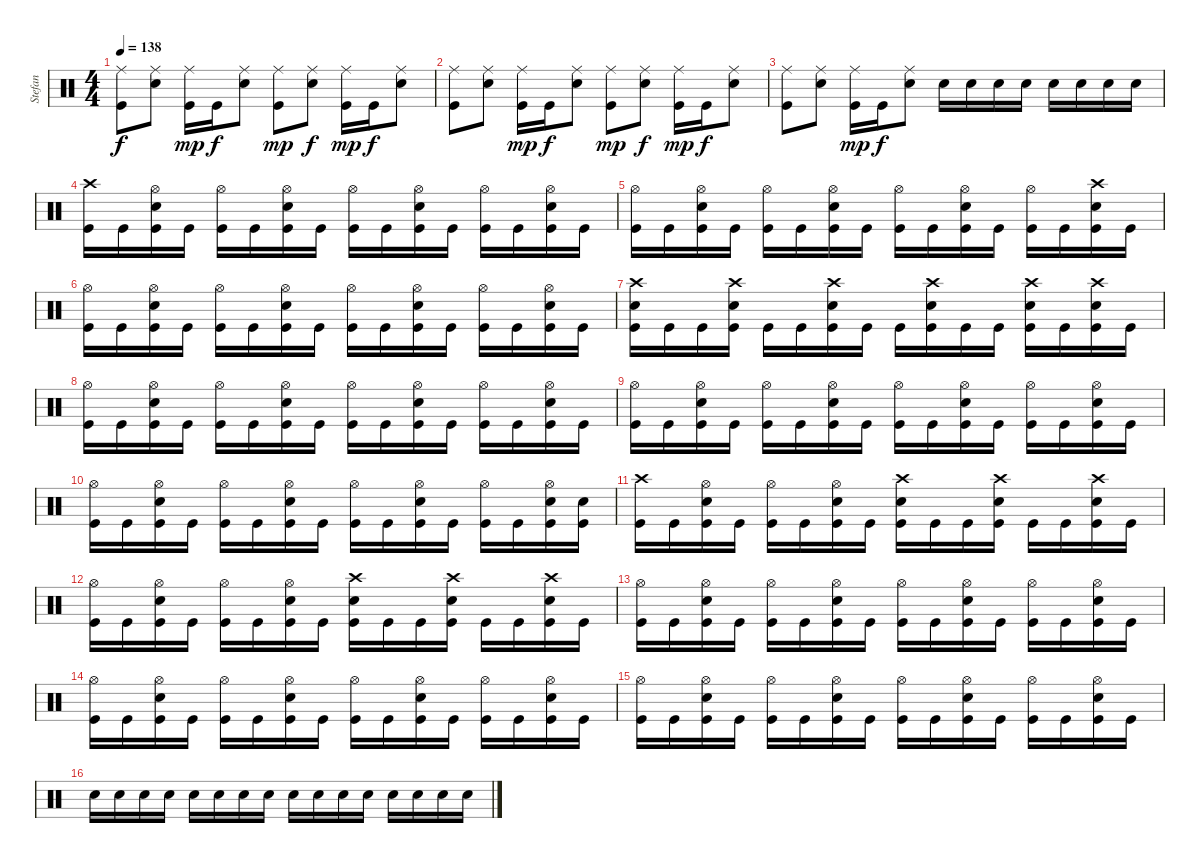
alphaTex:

\track ("Stefan" "Stefan") {instrument percussion}
\staff {score}
\articulation defaults
\ts (4 4)
\tempo 138
\clef neutral
\ks c
("Ride (middle)" "Kick (hit)").8{dy f} ("Ride (middle)" "Snare (hit) 2").8 ("Ride (middle)" "Kick (hit)").16{dy mp} "Kick (hit)".16{dy f} ("Ride (middle)" "Snare (hit) 2").8 ("Ride (middle)" "Kick (hit)").8{dy mp} ("Ride (middle)" "Snare (hit) 2").8{dy f} ("Ride (middle)" "Kick (hit)").16{dy mp} "Kick (hit)".16{dy f} ("Ride (middle)" "Snare (hit) 2").8 |
("Ride (middle)" "Kick (hit)").8 ("Ride (middle)" "Snare (hit) 2").8 ("Ride (middle)" "Kick (hit)").16{dy mp} "Kick (hit)".16{dy f} ("Ride (middle)" "Snare (hit) 2").8 ("Ride (middle)" "Kick (hit)").8{dy mp} ("Ride (middle)" "Snare (hit) 2").8{dy f} ("Ride (middle)" "Kick (hit)").16{dy mp} "Kick (hit)".16{dy f} ("Ride (middle)" "Snare (hit) 2").8 |
("Ride (middle)" "Kick (hit)").8 ("Ride (middle)" "Snare (hit) 2").8 ("Ride (middle)" "Kick (hit)").16{dy mp} "Kick (hit)".16{dy f} ("Ride (middle)" "Snare (hit) 2").8 "Snare (hit) 2".16 "Snare (hit) 2".16 "Snare (hit) 2".16 "Snare (hit) 2".16 "Snare (hit) 2".16 "Snare (hit) 2".16 "Snare (hit) 2".16 "Snare (hit) 2".16 |
("Crash high (hit)" "Kick (hit)").16 "Kick (hit)".16 ("Hi-Hat (open)" "Snare (hit) 2" "Kick (hit)").16 "Kick (hit)".16 ("Hi-Hat (open)" "Kick (hit)").16 "Kick (hit)".16 ("Hi-Hat (open)" "Snare (hit) 2" "Kick (hit)").16 "Kick (hit)".16 ("Hi-Hat (open)" "Kick (hit)").16 "Kick (hit)".16 ("Hi-Hat (open)" "Snare (hit) 2" "Kick (hit)").16 "Kick (hit)".16 ("Hi-Hat (open)" "Kick (hit)").16 "Kick (hit)".16 ("Hi-Hat (open)" "Snare (hit) 2" "Kick (hit)").16 "Kick (hit)".16 |
("Hi-Hat (open)" "Kick (hit)").16 "Kick (hit)".16 ("Hi-Hat (open)" "Snare (hit) 2" "Kick (hit)").16 "Kick (hit)".16 ("Hi-Hat (open)" "Kick (hit)").16 "Kick (hit)".16 ("Hi-Hat (open)" "Snare (hit) 2" "Kick (hit)").16 "Kick (hit)".16 ("Hi-Hat (open)" "Kick (hit)").16 "Kick (hit)".16 ("Hi-Hat (open)" "Snare (hit) 2" "Kick (hit)").16 "Kick (hit)".16 ("Hi-Hat (open)" "Kick (hit)").16 "Kick (hit)".16 ("Crash high (hit)" "Snare (hit) 2" "Kick (hit)").16 "Kick (hit)".16 |
("Hi-Hat (open)" "Kick (hit)").16 "Kick (hit)".16 ("Hi-Hat (open)" "Snare (hit) 2" "Kick (hit)").16 "Kick (hit)".16 ("Hi-Hat (open)" "Kick (hit)").16 "Kick (hit)".16 ("Hi-Hat (open)" "Snare (hit) 2" "Kick (hit)").16 "Kick (hit)".16 ("Hi-Hat (open)" "Kick (hit)").16 "Kick (hit)".16 ("Hi-Hat (open)" "Snare (hit) 2" "Kick (hit)").16 "Kick (hit)".16 ("Hi-Hat (open)" "Kick (hit)").16 "Kick (hit)".16 ("Hi-Hat (open)" "Snare (hit) 2" "Kick (hit)").16 "Kick (hit)".16 |
("Crash high (hit)" "Snare (hit) 2" "Kick (hit)").16 "Kick (hit)".16 "Kick (hit)".16 ("Crash high (hit)" "Snare (hit) 2" "Kick (hit)").16 "Kick (hit)".16 "Kick (hit)".16 ("Crash high (hit)" "Snare (hit) 2" "Kick (hit)").16 "Kick (hit)".16 "Kick (hit)".16 ("Crash high (hit)" "Snare (hit) 2" "Kick (hit)").16 "Kick (hit)".16 "Kick (hit)".16 ("Crash high (hit)" "Snare (hit) 2" "Kick (hit)").16 "Kick (hit)".16 ("Crash high (hit)" "Snare (hit) 2" "Kick (hit)").16 "Kick (hit)".16 |
("Hi-Hat (open)" "Kick (hit)").16 "Kick (hit)".16 ("Hi-Hat (open)" "Snare (hit) 2" "Kick (hit)").16 "Kick (hit)".16 ("Hi-Hat (open)" "Kick (hit)").16 "Kick (hit)".16 ("Hi-Hat (open)" "Snare (hit) 2" "Kick (hit)").16 "Kick (hit)".16 ("Hi-Hat (open)" "Kick (hit)").16 "Kick (hit)".16 ("Hi-Hat (open)" "Snare (hit) 2" "Kick (hit)").16 "Kick (hit)".16 ("Hi-Hat (open)" "Kick (hit)").16 "Kick (hit)".16 ("Hi-Hat (open)" "Snare (hit) 2" "Kick (hit)").16 "Kick (hit)".16 |
("Hi-Hat (open)" "Kick (hit)").16 "Kick (hit)".16 ("Hi-Hat (open)" "Snare (hit) 2" "Kick (hit)").16 "Kick (hit)".16 ("Hi-Hat (open)" "Kick (hit)").16 "Kick (hit)".16 ("Hi-Hat (open)" "Snare (hit) 2" "Kick (hit)").16 "Kick (hit)".16 ("Hi-Hat (open)" "Kick (hit)").16 "Kick (hit)".16 ("Hi-Hat (open)" "Snare (hit) 2" "Kick (hit)").16 "Kick (hit)".16 ("Hi-Hat (open)" "Kick (hit)").16 "Kick (hit)".16 ("Hi-Hat (open)" "Snare (hit) 2" "Kick (hit)").16 "Kick (hit)".16 |
("Hi-Hat (open)" "Kick (hit)").16 "Kick (hit)".16 ("Hi-Hat (open)" "Snare (hit) 2" "Kick (hit)").16 "Kick (hit)".16 ("Hi-Hat (open)" "Kick (hit)").16 "Kick (hit)".16 ("Hi-Hat (open)" "Snare (hit) 2" "Kick (hit)").16 "Kick (hit)".16 ("Hi-Hat (open)" "Kick (hit)").16 "Kick (hit)".16 ("Hi-Hat (open)" "Snare (hit) 2" "Kick (hit)").16 "Kick (hit)".16 ("Hi-Hat (open)" "Kick (hit)").16 "Kick (hit)".16 ("Hi-Hat (open)" "Snare (hit) 2" "Kick (hit)").16 ("Snare (hit) 2" "Kick (hit)").16 |
("Crash high (hit)" "Kick (hit)").16 "Kick (hit)".16 ("Hi-Hat (open)" "Snare (hit) 2" "Kick (hit)").16 "Kick (hit)".16 ("Hi-Hat (open)" "Kick (hit)").16 "Kick (hit)".16 ("Hi-Hat (open)" "Snare (hit) 2" "Kick (hit)").16 "Kick (hit)".16 ("Crash high (hit)" "Snare (hit) 2" "Kick (hit)").16 "Kick (hit)".16 "Kick (hit)".16 ("Crash high (hit)" "Snare (hit) 2" "Kick (hit)").16 "Kick (hit)".16 "Kick (hit)".16 ("Crash high (hit)" "Snare (hit) 2" "Kick (hit)").16 "Kick (hit)".16 |
("Hi-Hat (open)" "Kick (hit)").16 "Kick (hit)".16 ("Hi-Hat (open)" "Snare (hit) 2" "Kick (hit)").16 "Kick (hit)".16 ("Hi-Hat (open)" "Kick (hit)").16 "Kick (hit)".16 ("Hi-Hat (open)" "Snare (hit) 2" "Kick (hit)").16 "Kick (hit)".16 ("Crash high (hit)" "Snare (hit) 2" "Kick (hit)").16 "Kick (hit)".16 "Kick (hit)".16 ("Crash high (hit)" "Snare (hit) 2" "Kick (hit)").16 "Kick (hit)".16 "Kick (hit)".16 ("Crash high (hit)" "Snare (hit) 2" "Kick (hit)").16 "Kick (hit)".16 |
("Hi-Hat (open)" "Kick (hit)").16 "Kick (hit)".16 ("Hi-Hat (open)" "Snare (hit) 2" "Kick (hit)").16 "Kick (hit)".16 ("Hi-Hat (open)" "Kick (hit)").16 "Kick (hit)".16 ("Hi-Hat (open)" "Snare (hit) 2" "Kick (hit)").16 "Kick (hit)".16 ("Hi-Hat (open)" "Kick (hit)").16 "Kick (hit)".16 ("Hi-Hat (open)" "Snare (hit) 2" "Kick (hit)").16 "Kick (hit)".16 ("Hi-Hat (open)" "Kick (hit)").16 "Kick (hit)".16 ("Hi-Hat (open)" "Snare (hit) 2" "Kick (hit)").16 "Kick (hit)".16 |
("Hi-Hat (open)" "Kick (hit)").16 "Kick (hit)".16 ("Hi-Hat (open)" "Snare (hit) 2" "Kick (hit)").16 "Kick (hit)".16 ("Hi-Hat (open)" "Kick (hit)").16 "Kick (hit)".16 ("Hi-Hat (open)" "Snare (hit) 2" "Kick (hit)").16 "Kick (hit)".16 ("Hi-Hat (open)" "Kick (hit)").16 "Kick (hit)".16 ("Hi-Hat (open)" "Snare (hit) 2" "Kick (hit)").16 "Kick (hit)".16 ("Hi-Hat (open)" "Kick (hit)").16 "Kick (hit)".16 ("Hi-Hat (open)" "Snare (hit) 2" "Kick (hit)").16 "Kick (hit)".16 |
("Hi-Hat (open)" "Kick (hit)").16 "Kick (hit)".16 ("Hi-Hat (open)" "Snare (hit) 2" "Kick (hit)").16 "Kick (hit)".16 ("Hi-Hat (open)" "Kick (hit)").16 "Kick (hit)".16 ("Hi-Hat (open)" "Snare (hit) 2" "Kick (hit)").16 "Kick (hit)".16 ("Hi-Hat (open)" "Kick (hit)").16 "Kick (hit)".16 ("Hi-Hat (open)" "Snare (hit) 2" "Kick (hit)").16 "Kick (hit)".16 ("Hi-Hat (open)" "Kick (hit)").16 "Kick (hit)".16 ("Hi-Hat (open)" "Snare (hit) 2" "Kick (hit)").16 "Kick (hit)".16 |
"Snare (hit) 2".16 "Snare (hit) 2".16 "Snare (hit) 2".16 "Snare (hit) 2".16 "Snare (hit) 2".16 "Snare (hit) 2".16 "Snare (hit) 2".16 "Snare (hit) 2".16 "Snare (hit) 2".16 "Snare (hit) 2".16 "Snare (hit) 2".16 "Snare (hit) 2".16 "Snare (hit) 2".16 "Snare (hit) 2".16 "Snare (hit) 2".16 "Snare (hit) 2".16
